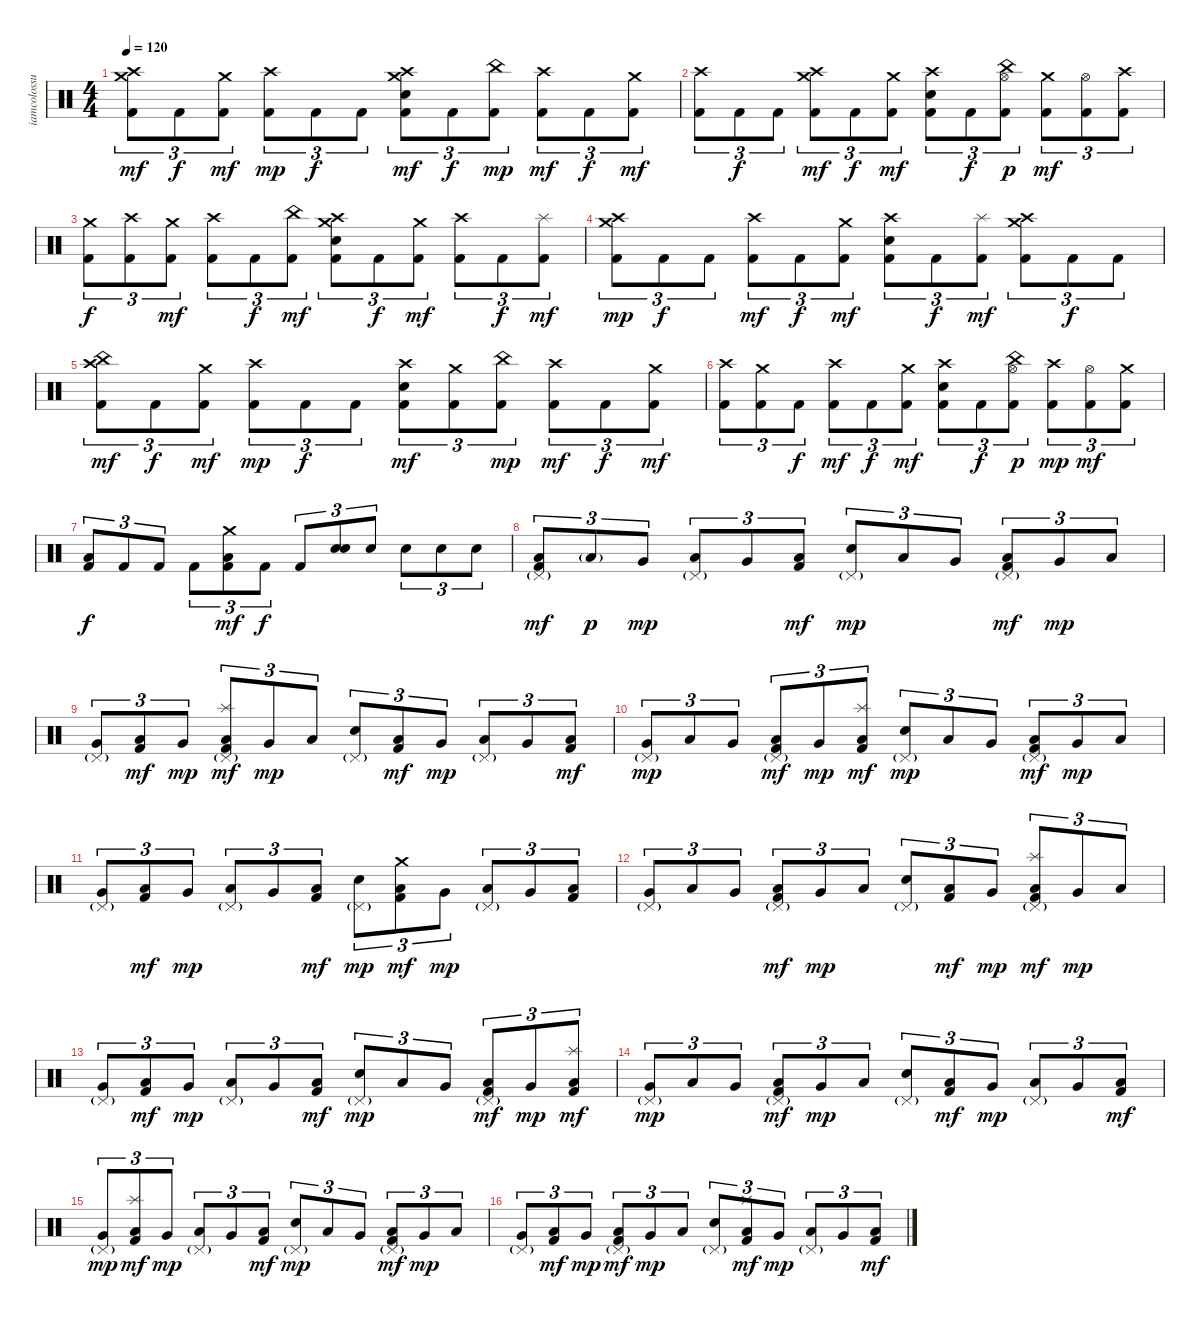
\track ("iamcolossus(Thomas Haake)" "iamcolossu") {instrument percussion}
\staff {score}
\articulation defaults
\ts (4 4)
\tempo 120
\clef neutral
\ks c
("Crash medium (hit)" "Crash high (hit)" "Kick (hit) 2").8{tu (3 2) dy mf} "Kick (hit) 2".8{tu (3 2) dy f} ("Crash medium (hit)" "Kick (hit) 2").8{tu (3 2) dy mf} ("Crash high (hit)" "Kick (hit) 2").8{tu (3 2) dy mp} "Kick (hit) 2".8{tu (3 2) dy f} "Kick (hit) 2".8{tu (3 2)} ("Crash medium (hit)" "Crash high (hit)" "Electric Snare (hit)" "Kick (hit) 2").8{tu (3 2) dy mf} "Kick (hit) 2".8{tu (3 2) dy f} ("China (hit)" "Kick (hit) 2").8{tu (3 2) dy mp} ("Crash high (hit)" "Kick (hit) 2").8{tu (3 2) dy mf} "Kick (hit) 2".8{tu (3 2) dy f} ("Crash medium (hit)" "Kick (hit) 2").8{tu (3 2) dy mf} |
("Crash high (hit)" "Kick (hit) 2").8{tu (3 2)} "Kick (hit) 2".8{tu (3 2) dy f} "Kick (hit) 2".8{tu (3 2)} ("Crash medium (hit)" "Crash high (hit)" "Kick (hit) 2").8{tu (3 2) dy mf} "Kick (hit) 2".8{tu (3 2) dy f} ("Crash medium (hit)" "Kick (hit) 2").8{tu (3 2) dy mf} ("Crash high (hit)" "Electric Snare (hit)" "Kick (hit) 2").8{tu (3 2)} "Kick (hit) 2".8{tu (3 2) dy f} ("China (hit)" "Hi-Hat (open)" "Kick (hit) 2").8{tu (3 2) dy p} ("Crash medium (hit)" "Kick (hit) 2").8{tu (3 2) dy mf} ("Hi-Hat (open)" "Kick (hit) 2").8{tu (3 2)} ("Crash high (hit)" "Kick (hit) 2").8{tu (3 2)} |
("Crash medium (hit)" "Kick (hit) 2").8{tu (3 2) dy f} ("Crash high (hit)" "Kick (hit) 2").8{tu (3 2)} ("Crash medium (hit)" "Kick (hit) 2").8{tu (3 2) dy mf} ("Crash high (hit)" "Kick (hit) 2").8{tu (3 2)} "Kick (hit) 2".8{tu (3 2) dy f} ("China (hit)" "Kick (hit) 2").8{tu (3 2) dy mf} ("Crash medium (hit)" "Crash high (hit)" "Electric Snare (hit)" "Kick (hit) 2").8{tu (3 2)} "Kick (hit) 2".8{tu (3 2) dy f} ("Crash medium (hit)" "Kick (hit) 2").8{tu (3 2) dy mf} ("Crash high (hit)" "Kick (hit) 2").8{tu (3 2)} "Kick (hit) 2".8{tu (3 2) dy f} ("Splash (hit)" "Kick (hit) 2").8{tu (3 2) dy mf} |
("Crash medium (hit)" "Crash high (hit)" "Kick (hit) 2").8{tu (3 2) dy mp} "Kick (hit) 2".8{tu (3 2) dy f} "Kick (hit) 2".8{tu (3 2)} ("Crash high (hit)" "Kick (hit) 2").8{tu (3 2) dy mf} "Kick (hit) 2".8{tu (3 2) dy f} ("Crash medium (hit)" "Kick (hit) 2").8{tu (3 2) dy mf} ("Crash high (hit)" "Electric Snare (hit)" "Kick (hit) 2").8{tu (3 2)} "Kick (hit) 2".8{tu (3 2) dy f} ("Splash (hit)" "Kick (hit) 2").8{tu (3 2) dy mf} ("Crash medium (hit)" "Crash high (hit)" "Kick (hit) 2").8{tu (3 2)} "Kick (hit) 2".8{tu (3 2) dy f} "Kick (hit) 2".8{tu (3 2)} |
("China (hit)" "Crash high (hit)" "Kick (hit) 2").8{tu (3 2) dy mf} "Kick (hit) 2".8{tu (3 2) dy f} ("Crash medium (hit)" "Kick (hit) 2").8{tu (3 2) dy mf} ("Crash high (hit)" "Kick (hit) 2").8{tu (3 2) dy mp} "Kick (hit) 2".8{tu (3 2) dy f} "Kick (hit) 2".8{tu (3 2)} ("Crash high (hit)" "Electric Snare (hit)" "Kick (hit) 2").8{tu (3 2) dy mf} ("Crash medium (hit)" "Kick (hit) 2").8{tu (3 2)} ("China (hit)" "Kick (hit) 2").8{tu (3 2) dy mp} ("Crash high (hit)" "Kick (hit) 2").8{tu (3 2) dy mf} "Kick (hit) 2".8{tu (3 2) dy f} ("Crash medium (hit)" "Kick (hit) 2").8{tu (3 2) dy mf} |
("Crash high (hit)" "Kick (hit) 2").8{tu (3 2)} ("Crash medium (hit)" "Kick (hit) 2").8{tu (3 2)} "Kick (hit) 2".8{tu (3 2) dy f} ("Crash high (hit)" "Kick (hit) 2").8{tu (3 2) dy mf} "Kick (hit) 2".8{tu (3 2) dy f} ("Crash medium (hit)" "Kick (hit) 2").8{tu (3 2) dy mf} ("Crash high (hit)" "Electric Snare (hit)" "Kick (hit) 2").8{tu (3 2)} "Kick (hit) 2".8{tu (3 2) dy f} ("China (hit)" "Hi-Hat (open)" "Kick (hit) 2").8{tu (3 2) dy p} ("Crash high (hit)" "Kick (hit) 2").8{tu (3 2) dy mp} ("Hi-Hat (open)" "Kick (hit) 2").8{tu (3 2) dy mf} ("Crash medium (hit)" "Kick (hit) 2").8{tu (3 2)} |
("Low Floor Tom (hit)" "Kick (hit) 2").8{tu (3 2) dy f} "Kick (hit) 2".8{tu (3 2)} "Kick (hit) 2".8{tu (3 2)} "Kick (hit) 2".8{tu (3 2)} ("Crash medium (hit)" "Low Floor Tom (hit)" "Kick (hit) 2").8{tu (3 2) dy mf} "Kick (hit) 2".8{tu (3 2) dy f} "Kick (hit) 2".8{tu (3 2)} ("Electric Snare (hit)" "Electric Snare (hit)").8{tu (3 2) bd 120} "Electric Snare (hit)".8{tu (3 2)} "Electric Snare (hit)".8{tu (3 2)} "Electric Snare (hit)".8{tu (3 2)} "Electric Snare (hit)".8{tu (3 2)} |
("Pedal Hi-Hat (hit)"{g} "Low Floor Tom (hit)" "Kick (hit) 2").8{tu (3 2) dy mf} "Low Floor Tom (hit)"{g}.8{tu (3 2) dy p} "Very Low Tom (hit)".8{tu (3 2) dy mp} ("Pedal Hi-Hat (hit)"{g} "Low Floor Tom (hit)").8{tu (3 2)} "Very Low Tom (hit)".8{tu (3 2)} ("Low Floor Tom (hit)" "Kick (hit) 2").8{tu (3 2) dy mf} ("Pedal Hi-Hat (hit)"{g} "Electric Snare (hit)").8{tu (3 2) dy mp} "Low Floor Tom (hit)".8{tu (3 2)} "Very Low Tom (hit)".8{tu (3 2)} ("Pedal Hi-Hat (hit)"{g} "Low Floor Tom (hit)" "Kick (hit) 2").8{tu (3 2) dy mf} "Very Low Tom (hit)".8{tu (3 2) dy mp} "Low Floor Tom (hit)".8{tu (3 2)} |
("Pedal Hi-Hat (hit)"{g} "Very Low Tom (hit)").8{tu (3 2)} ("Low Floor Tom (hit)" "Kick (hit) 2").8{tu (3 2) dy mf} "Very Low Tom (hit)".8{tu (3 2) dy mp} ("Pedal Hi-Hat (hit)"{g} "Splash (hit)" "Low Floor Tom (hit)" "Kick (hit) 2").8{tu (3 2) dy mf} "Very Low Tom (hit)".8{tu (3 2) dy mp} "Low Floor Tom (hit)".8{tu (3 2)} ("Pedal Hi-Hat (hit)"{g} "Electric Snare (hit)").8{tu (3 2)} ("Low Floor Tom (hit)" "Kick (hit) 2").8{tu (3 2) dy mf} "Very Low Tom (hit)".8{tu (3 2) dy mp} ("Pedal Hi-Hat (hit)"{g} "Low Floor Tom (hit)").8{tu (3 2)} "Very Low Tom (hit)".8{tu (3 2)} ("Low Floor Tom (hit)" "Kick (hit) 2").8{tu (3 2) dy mf} |
("Pedal Hi-Hat (hit)"{g} "Very Low Tom (hit)").8{tu (3 2) dy mp} "Low Floor Tom (hit)".8{tu (3 2)} "Very Low Tom (hit)".8{tu (3 2)} ("Pedal Hi-Hat (hit)"{g} "Low Floor Tom (hit)" "Kick (hit) 2").8{tu (3 2) dy mf} "Very Low Tom (hit)".8{tu (3 2) dy mp} ("Splash (hit)" "Low Floor Tom (hit)" "Kick (hit) 2").8{tu (3 2) dy mf} ("Pedal Hi-Hat (hit)"{g} "Electric Snare (hit)").8{tu (3 2) dy mp} "Low Floor Tom (hit)".8{tu (3 2)} "Very Low Tom (hit)".8{tu (3 2)} ("Pedal Hi-Hat (hit)"{g} "Low Floor Tom (hit)" "Kick (hit) 2").8{tu (3 2) dy mf} "Very Low Tom (hit)".8{tu (3 2) dy mp} "Low Floor Tom (hit)".8{tu (3 2)} |
("Pedal Hi-Hat (hit)"{g} "Very Low Tom (hit)").8{tu (3 2)} ("Low Floor Tom (hit)" "Kick (hit) 2").8{tu (3 2) dy mf} "Very Low Tom (hit)".8{tu (3 2) dy mp} ("Pedal Hi-Hat (hit)"{g} "Low Floor Tom (hit)").8{tu (3 2)} "Very Low Tom (hit)".8{tu (3 2)} ("Low Floor Tom (hit)" "Kick (hit) 2").8{tu (3 2) dy mf} ("Pedal Hi-Hat (hit)"{g} "Electric Snare (hit)").8{tu (3 2) dy mp} ("Crash medium (hit)" "Low Floor Tom (hit)" "Kick (hit) 2").8{tu (3 2) dy mf} "Very Low Tom (hit)".8{tu (3 2) dy mp} ("Pedal Hi-Hat (hit)"{g} "Low Floor Tom (hit)").8{tu (3 2)} "Very Low Tom (hit)".8{tu (3 2)} ("Low Floor Tom (hit)" "Kick (hit) 2").8{tu (3 2)} |
("Pedal Hi-Hat (hit)"{g} "Very Low Tom (hit)").8{tu (3 2)} "Low Floor Tom (hit)".8{tu (3 2)} "Very Low Tom (hit)".8{tu (3 2)} ("Pedal Hi-Hat (hit)"{g} "Low Floor Tom (hit)" "Kick (hit) 2").8{tu (3 2) dy mf} "Very Low Tom (hit)".8{tu (3 2) dy mp} "Low Floor Tom (hit)".8{tu (3 2)} ("Pedal Hi-Hat (hit)"{g} "Electric Snare (hit)").8{tu (3 2)} ("Low Floor Tom (hit)" "Kick (hit) 2").8{tu (3 2) dy mf} "Very Low Tom (hit)".8{tu (3 2) dy mp} ("Pedal Hi-Hat (hit)"{g} "Splash (hit)" "Low Floor Tom (hit)" "Kick (hit) 2").8{tu (3 2) dy mf} "Very Low Tom (hit)".8{tu (3 2) dy mp} "Low Floor Tom (hit)".8{tu (3 2)} |
("Pedal Hi-Hat (hit)"{g} "Very Low Tom (hit)").8{tu (3 2)} ("Low Floor Tom (hit)" "Kick (hit) 2").8{tu (3 2) dy mf} "Very Low Tom (hit)".8{tu (3 2) dy mp} ("Pedal Hi-Hat (hit)"{g} "Low Floor Tom (hit)").8{tu (3 2)} "Very Low Tom (hit)".8{tu (3 2)} ("Low Floor Tom (hit)" "Kick (hit) 2").8{tu (3 2) dy mf} ("Pedal Hi-Hat (hit)"{g} "Electric Snare (hit)").8{tu (3 2) dy mp} "Low Floor Tom (hit)".8{tu (3 2)} "Very Low Tom (hit)".8{tu (3 2)} ("Pedal Hi-Hat (hit)"{g} "Low Floor Tom (hit)" "Kick (hit) 2").8{tu (3 2) dy mf} "Very Low Tom (hit)".8{tu (3 2) dy mp} ("Splash (hit)" "Low Floor Tom (hit)" "Kick (hit) 2").8{tu (3 2) dy mf} |
("Pedal Hi-Hat (hit)"{g} "Very Low Tom (hit)").8{tu (3 2) dy mp} "Low Floor Tom (hit)".8{tu (3 2)} "Very Low Tom (hit)".8{tu (3 2)} ("Pedal Hi-Hat (hit)"{g} "Low Floor Tom (hit)" "Kick (hit) 2").8{tu (3 2) dy mf} "Very Low Tom (hit)".8{tu (3 2) dy mp} "Low Floor Tom (hit)".8{tu (3 2)} ("Pedal Hi-Hat (hit)"{g} "Electric Snare (hit)").8{tu (3 2)} ("Low Floor Tom (hit)" "Kick (hit) 2").8{tu (3 2) dy mf} "Very Low Tom (hit)".8{tu (3 2) dy mp} ("Pedal Hi-Hat (hit)"{g} "Low Floor Tom (hit)").8{tu (3 2)} "Very Low Tom (hit)".8{tu (3 2)} ("Low Floor Tom (hit)" "Kick (hit) 2").8{tu (3 2) dy mf} |
("Pedal Hi-Hat (hit)"{g} "Very Low Tom (hit)").8{tu (3 2) dy mp} ("Splash (hit)" "Low Floor Tom (hit)" "Kick (hit) 2").8{tu (3 2) dy mf} "Very Low Tom (hit)".8{tu (3 2) dy mp} ("Pedal Hi-Hat (hit)"{g} "Low Floor Tom (hit)").8{tu (3 2)} "Very Low Tom (hit)".8{tu (3 2)} ("Low Floor Tom (hit)" "Kick (hit) 2").8{tu (3 2) dy mf} ("Pedal Hi-Hat (hit)"{g} "Electric Snare (hit)").8{tu (3 2) dy mp} "Low Floor Tom (hit)".8{tu (3 2)} "Very Low Tom (hit)".8{tu (3 2)} ("Pedal Hi-Hat (hit)"{g} "Low Floor Tom (hit)" "Kick (hit) 2").8{tu (3 2) dy mf} "Very Low Tom (hit)".8{tu (3 2) dy mp} "Low Floor Tom (hit)".8{tu (3 2)} |
("Pedal Hi-Hat (hit)"{g} "Very Low Tom (hit)").8{tu (3 2)} ("Low Floor Tom (hit)" "Kick (hit) 2").8{tu (3 2) dy mf} "Very Low Tom (hit)".8{tu (3 2) dy mp} ("Pedal Hi-Hat (hit)"{g} "Low Floor Tom (hit)" "Kick (hit) 2").8{tu (3 2) dy mf} "Very Low Tom (hit)".8{tu (3 2) dy mp} "Low Floor Tom (hit)".8{tu (3 2)} ("Pedal Hi-Hat (hit)"{g} "Electric Snare (hit)").8{tu (3 2)} ("Splash (hit)" "Low Floor Tom (hit)" "Kick (hit) 2").8{tu (3 2) dy mf} "Very Low Tom (hit)".8{tu (3 2) dy mp} ("Pedal Hi-Hat (hit)"{g} "Low Floor Tom (hit)").8{tu (3 2)} "Very Low Tom (hit)".8{tu (3 2)} ("Low Floor Tom (hit)" "Kick (hit) 2").8{tu (3 2) dy mf}
